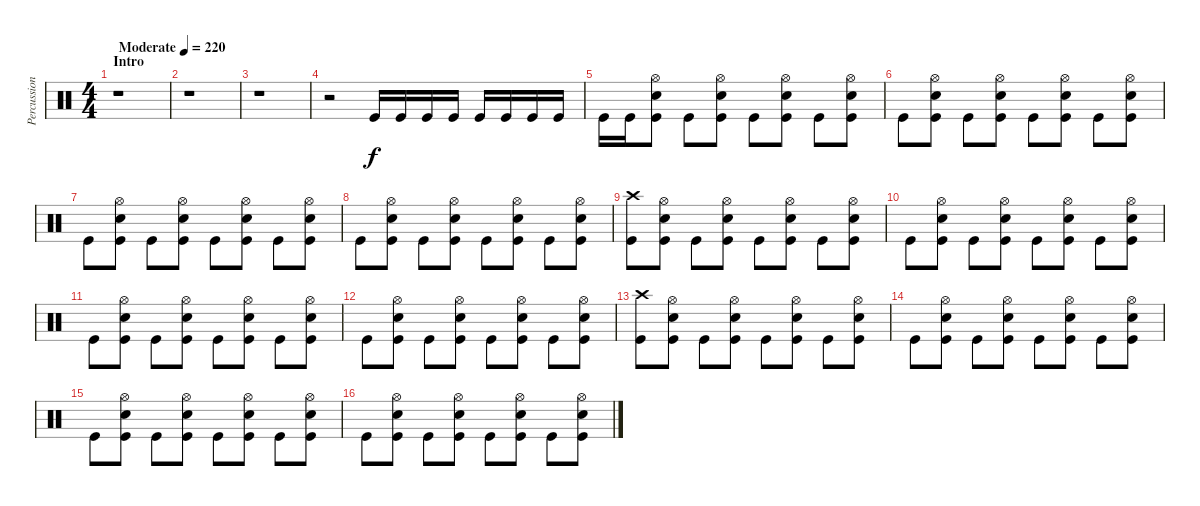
\track ("Percussion" "Percussion") {instrument percussion}
\staff {score}
\articulation defaults
\ts (4 4)
\section ("" "Intro")
\tempo (220 "Moderate")
\clef neutral
\ks c
r.1{dy f} |
r.1 |
r.1 |
r.2 "Kick (hit)".16 "Kick (hit)".16 "Kick (hit)".16 "Kick (hit)".16 "Kick (hit)".16 "Kick (hit)".16 "Kick (hit)".16 "Kick (hit)".16 |
"Kick (hit)".16 "Kick (hit)".16 ("Kick (hit)" "Snare (hit) 2" "Hi-Hat (open)").8 "Kick (hit)".8 ("Kick (hit)" "Snare (hit) 2" "Hi-Hat (open)").8 "Kick (hit)".8 ("Kick (hit)" "Snare (hit) 2" "Hi-Hat (open)").8 "Kick (hit)".8 ("Kick (hit)" "Snare (hit) 2" "Hi-Hat (open)").8 |
"Kick (hit)".8 ("Kick (hit)" "Snare (hit) 2" "Hi-Hat (open)").8 "Kick (hit)".8 ("Kick (hit)" "Snare (hit) 2" "Hi-Hat (open)").8 "Kick (hit)".8 ("Kick (hit)" "Snare (hit) 2" "Hi-Hat (open)").8 "Kick (hit)".8 ("Kick (hit)" "Snare (hit) 2" "Hi-Hat (open)").8 |
"Kick (hit)".8 ("Kick (hit)" "Snare (hit) 2" "Hi-Hat (open)").8 "Kick (hit)".8 ("Kick (hit)" "Snare (hit) 2" "Hi-Hat (open)").8 "Kick (hit)".8 ("Kick (hit)" "Snare (hit) 2" "Hi-Hat (open)").8 "Kick (hit)".8 ("Kick (hit)" "Snare (hit) 2" "Hi-Hat (open)").8 |
"Kick (hit)".8 ("Kick (hit)" "Snare (hit) 2" "Hi-Hat (open)").8 "Kick (hit)".8 ("Kick (hit)" "Snare (hit) 2" "Hi-Hat (open)").8 "Kick (hit)".8 ("Kick (hit)" "Snare (hit) 2" "Hi-Hat (open)").8 "Kick (hit)".8 ("Kick (hit)" "Snare (hit) 2" "Hi-Hat (open)").8 |
("Kick (hit)" "Crash high (hit)").8 ("Kick (hit)" "Snare (hit) 2" "Hi-Hat (open)").8 "Kick (hit)".8 ("Kick (hit)" "Snare (hit) 2" "Hi-Hat (open)").8 "Kick (hit)".8 ("Kick (hit)" "Snare (hit) 2" "Hi-Hat (open)").8 "Kick (hit)".8 ("Kick (hit)" "Snare (hit) 2" "Hi-Hat (open)").8 |
"Kick (hit)".8 ("Kick (hit)" "Snare (hit) 2" "Hi-Hat (open)").8 "Kick (hit)".8 ("Kick (hit)" "Snare (hit) 2" "Hi-Hat (open)").8 "Kick (hit)".8 ("Kick (hit)" "Snare (hit) 2" "Hi-Hat (open)").8 "Kick (hit)".8 ("Kick (hit)" "Snare (hit) 2" "Hi-Hat (open)").8 |
"Kick (hit)".8 ("Kick (hit)" "Snare (hit) 2" "Hi-Hat (open)").8 "Kick (hit)".8 ("Kick (hit)" "Snare (hit) 2" "Hi-Hat (open)").8 "Kick (hit)".8 ("Kick (hit)" "Snare (hit) 2" "Hi-Hat (open)").8 "Kick (hit)".8 ("Kick (hit)" "Snare (hit) 2" "Hi-Hat (open)").8 |
"Kick (hit)".8 ("Kick (hit)" "Snare (hit) 2" "Hi-Hat (open)").8 "Kick (hit)".8 ("Kick (hit)" "Snare (hit) 2" "Hi-Hat (open)").8 "Kick (hit)".8 ("Kick (hit)" "Snare (hit) 2" "Hi-Hat (open)").8 "Kick (hit)".8 ("Kick (hit)" "Snare (hit) 2" "Hi-Hat (open)").8 |
("Kick (hit)" "Crash high (hit)").8 ("Kick (hit)" "Snare (hit) 2" "Hi-Hat (open)").8 "Kick (hit)".8 ("Kick (hit)" "Snare (hit) 2" "Hi-Hat (open)").8 "Kick (hit)".8 ("Kick (hit)" "Snare (hit) 2" "Hi-Hat (open)").8 "Kick (hit)".8 ("Kick (hit)" "Snare (hit) 2" "Hi-Hat (open)").8 |
"Kick (hit)".8 ("Kick (hit)" "Snare (hit) 2" "Hi-Hat (open)").8 "Kick (hit)".8 ("Kick (hit)" "Snare (hit) 2" "Hi-Hat (open)").8 "Kick (hit)".8 ("Kick (hit)" "Snare (hit) 2" "Hi-Hat (open)").8 "Kick (hit)".8 ("Kick (hit)" "Snare (hit) 2" "Hi-Hat (open)").8 |
"Kick (hit)".8 ("Kick (hit)" "Snare (hit) 2" "Hi-Hat (open)").8 "Kick (hit)".8 ("Kick (hit)" "Snare (hit) 2" "Hi-Hat (open)").8 "Kick (hit)".8 ("Kick (hit)" "Snare (hit) 2" "Hi-Hat (open)").8 "Kick (hit)".8 ("Kick (hit)" "Snare (hit) 2" "Hi-Hat (open)").8 |
"Kick (hit)".8 ("Kick (hit)" "Snare (hit) 2" "Hi-Hat (open)").8 "Kick (hit)".8 ("Kick (hit)" "Snare (hit) 2" "Hi-Hat (open)").8 "Kick (hit)".8 ("Kick (hit)" "Snare (hit) 2" "Hi-Hat (open)").8 "Kick (hit)".8 ("Kick (hit)" "Snare (hit) 2" "Hi-Hat (open)").8
